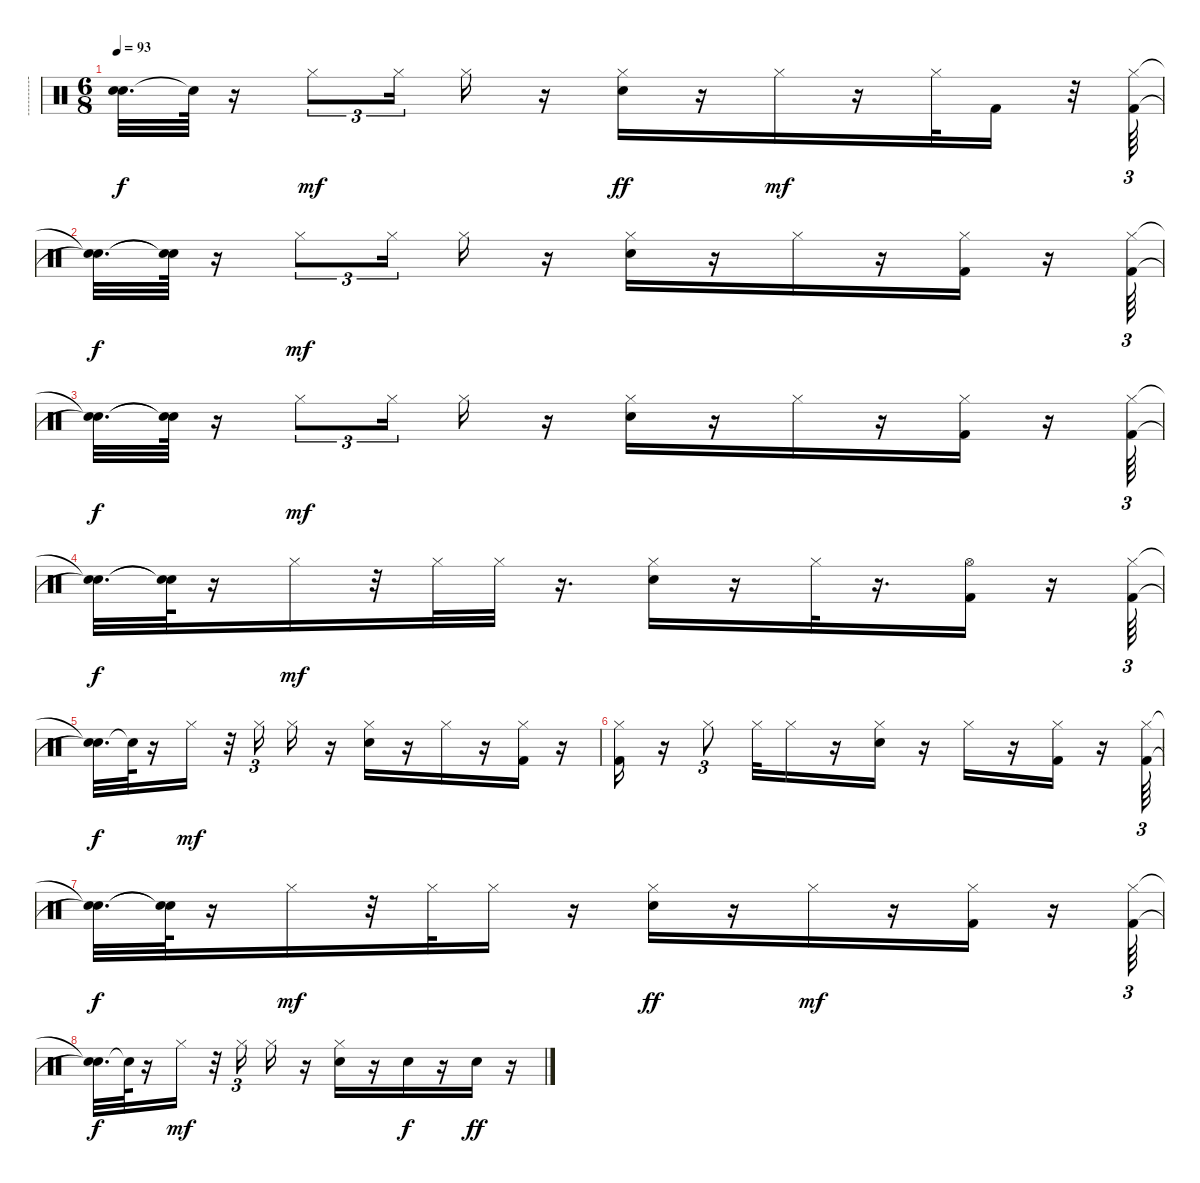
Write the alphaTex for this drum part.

\track ("-----------------------------------" "----------") {instrument percussion}
\staff {score}
\articulation defaults
\ts (6 8)
\tempo 93
\clef neutral
\ks c
("Snare (hit)"{t} "Snare (hit)"{t}).32{d dy f} "Snare (hit)"{t}.64 r.16 "Hi-Hat (closed)".8{tu (3 2) dy mf} "Hi-Hat (closed)".16{tu (3 2)} "Hi-Hat (closed)".16 r.16 ("Hi-Hat (closed)" "Snare (hit) 2").16{dy ff} r.16 "Hi-Hat (closed)".16{dy mf} r.16 "Hi-Hat (closed)".32 "Kick (hit) 2".16 r.32 ("Hi-Hat (closed)" "Kick (hit) 2").64{tu (3 2)} |
("Snare (hit)"{t} "Snare (hit)"{t}).32{d dy f} ("Snare (hit)"{t} "Snare (hit)"{t}).64 r.16 "Hi-Hat (closed)".8{tu (3 2) dy mf} "Hi-Hat (closed)".16{tu (3 2)} "Hi-Hat (closed)".16 r.16 ("Hi-Hat (closed)" "Snare (hit) 2").16 r.16 "Hi-Hat (closed)".16 r.16 ("Hi-Hat (closed)" "Kick (hit) 2").16 r.16 ("Hi-Hat (closed)" "Kick (hit) 2").64{tu (3 2)} |
("Snare (hit)"{t} "Snare (hit)"{t}).32{d dy f} ("Snare (hit)"{t} "Snare (hit)"{t}).64 r.16 "Hi-Hat (closed)".8{tu (3 2) dy mf} "Hi-Hat (closed)".16{tu (3 2)} "Hi-Hat (closed)".16 r.16 ("Hi-Hat (closed)" "Snare (hit) 2").16 r.16 "Hi-Hat (closed)".16 r.16 ("Hi-Hat (closed)" "Kick (hit) 2").16 r.16 ("Hi-Hat (closed)" "Kick (hit) 2").64{tu (3 2)} |
("Snare (hit)"{t} "Snare (hit)"{t}).32{d dy f} ("Snare (hit)"{t} "Snare (hit)"{t}).64 r.16 "Hi-Hat (closed)".16{dy mf} r.32 "Hi-Hat (closed)".32 "Hi-Hat (closed)".32 r.16{d} ("Hi-Hat (closed)" "Snare (hit) 2").16 r.16 "Hi-Hat (closed)".32 r.16{d} ("Hi-Hat (open)" "Kick (hit) 2").16 r.16 ("Hi-Hat (closed)" "Kick (hit) 2").64{tu (3 2)} |
("Snare (hit)"{t} "Snare (hit)"{t}).32{d dy f} "Snare (hit)"{t}.64 r.16 "Hi-Hat (closed)".16{dy mf} r.32 "Hi-Hat (closed)".16{tu (3 2)} "Hi-Hat (closed)".16 r.16 ("Hi-Hat (closed)" "Snare (hit) 2").16 r.16 "Hi-Hat (closed)".16 r.16 ("Hi-Hat (closed)" "Kick (hit) 2").16 r.16 |
("Hi-Hat (closed)" "Kick (hit) 2").16 r.16 "Hi-Hat (closed)".8{tu (3 2)} "Hi-Hat (closed)".32 "Hi-Hat (closed)".16 r.16 ("Hi-Hat (closed)" "Snare (hit) 2").16 r.16 "Hi-Hat (closed)".16 r.16 ("Hi-Hat (closed)" "Kick (hit) 2").16 r.16 ("Hi-Hat (closed)" "Kick (hit) 2").64{tu (3 2)} |
("Snare (hit)"{t} "Snare (hit)"{t}).32{d dy f} ("Snare (hit)"{t} "Snare (hit)"{t}).64 r.16 "Hi-Hat (closed)".16{dy mf} r.32 "Hi-Hat (closed)".32 "Hi-Hat (closed)".16 r.16 ("Hi-Hat (closed)" "Snare (hit) 2").16{dy ff} r.16 "Hi-Hat (closed)".16{dy mf} r.16 ("Hi-Hat (closed)" "Kick (hit) 2").16 r.16 ("Hi-Hat (closed)" "Kick (hit) 2").64{tu (3 2)} |
("Snare (hit)"{t} "Snare (hit)"{t}).32{d dy f} "Snare (hit)"{t}.64 r.16 "Hi-Hat (closed)".16{dy mf} r.32 "Hi-Hat (closed)".16{tu (3 2)} "Hi-Hat (closed)".16 r.16 ("Hi-Hat (closed)" "Snare (hit) 2").16 r.16 "Snare (hit) 2".16{dy f} r.16 "Snare (hit) 2".16{dy ff} r.16
